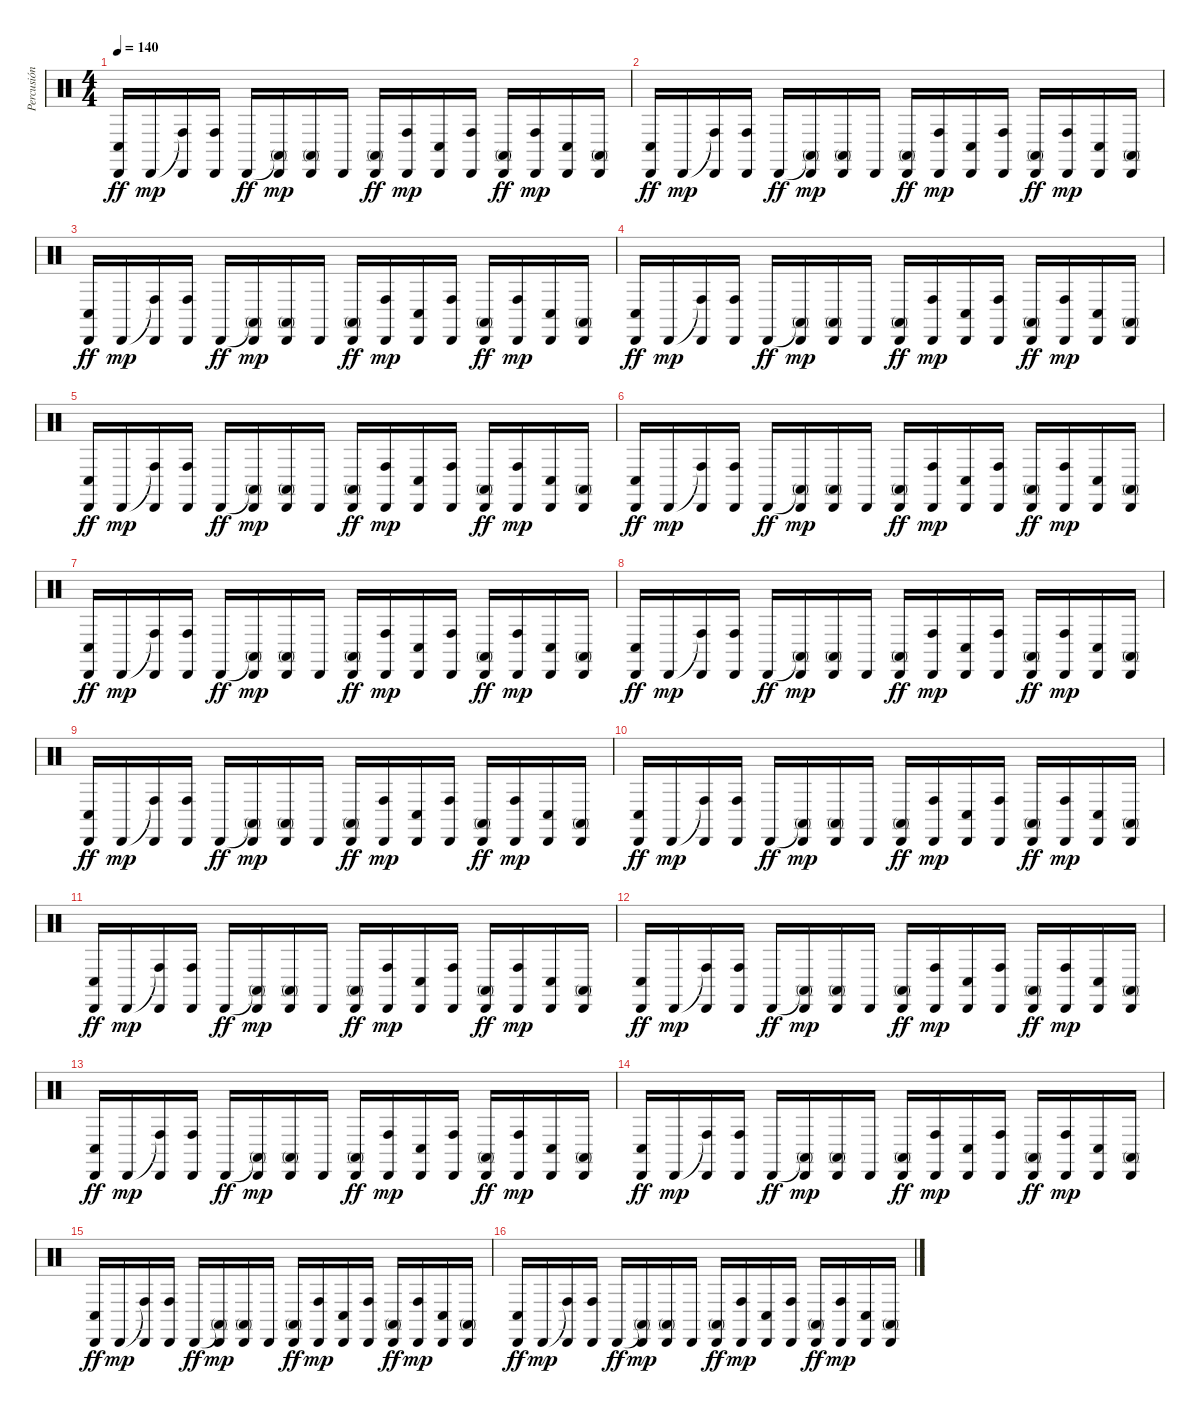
\track ("Percusión" "Percusión") {instrument percussion}
\staff {score}
\articulation defaults
\ts (4 4)
\tempo 140
\clef neutral
\ks c
("Conga low (hit)" "Cabasa (hit)").16{dy ff} "Cabasa (hit)".16{dy mp} ("Conga high (hit)"{t} "Cabasa (hit)").16 ("Conga high (hit)" "Cabasa (hit)").16 "Cabasa (hit)".16{dy ff} ("Conga high (mute)"{t} "Cabasa (hit)").16{dy mp} ("Conga high (mute)" "Cabasa (hit)").16 "Cabasa (hit)".16 ("Conga high (mute)" "Cabasa (hit)").16{dy ff} ("Conga high (hit)" "Cabasa (hit)").16{dy mp} ("Conga low (hit)" "Cabasa (hit)").16 ("Conga high (hit)" "Cabasa (hit)").16 ("Conga high (mute)" "Cabasa (hit)").16{dy ff} ("Conga high (hit)" "Cabasa (hit)").16{dy mp} ("Conga low (hit)" "Cabasa (hit)").16 ("Conga high (mute)" "Cabasa (hit)").16 |
("Conga low (hit)" "Cabasa (hit)").16{dy ff} "Cabasa (hit)".16{dy mp} ("Conga high (hit)"{t} "Cabasa (hit)").16 ("Conga high (hit)" "Cabasa (hit)").16 "Cabasa (hit)".16{dy ff} ("Conga high (mute)"{t} "Cabasa (hit)").16{dy mp} ("Conga high (mute)" "Cabasa (hit)").16 "Cabasa (hit)".16 ("Conga high (mute)" "Cabasa (hit)").16{dy ff} ("Conga high (hit)" "Cabasa (hit)").16{dy mp} ("Conga low (hit)" "Cabasa (hit)").16 ("Conga high (hit)" "Cabasa (hit)").16 ("Conga high (mute)" "Cabasa (hit)").16{dy ff} ("Conga high (hit)" "Cabasa (hit)").16{dy mp} ("Conga low (hit)" "Cabasa (hit)").16 ("Conga high (mute)" "Cabasa (hit)").16 |
("Conga low (hit)" "Cabasa (hit)").16{dy ff} "Cabasa (hit)".16{dy mp} ("Conga high (hit)"{t} "Cabasa (hit)").16 ("Conga high (hit)" "Cabasa (hit)").16 "Cabasa (hit)".16{dy ff} ("Conga high (mute)"{t} "Cabasa (hit)").16{dy mp} ("Conga high (mute)" "Cabasa (hit)").16 "Cabasa (hit)".16 ("Conga high (mute)" "Cabasa (hit)").16{dy ff} ("Conga high (hit)" "Cabasa (hit)").16{dy mp} ("Conga low (hit)" "Cabasa (hit)").16 ("Conga high (hit)" "Cabasa (hit)").16 ("Conga high (mute)" "Cabasa (hit)").16{dy ff} ("Conga high (hit)" "Cabasa (hit)").16{dy mp} ("Conga low (hit)" "Cabasa (hit)").16 ("Conga high (mute)" "Cabasa (hit)").16 |
("Conga low (hit)" "Cabasa (hit)").16{dy ff} "Cabasa (hit)".16{dy mp} ("Conga high (hit)"{t} "Cabasa (hit)").16 ("Conga high (hit)" "Cabasa (hit)").16 "Cabasa (hit)".16{dy ff} ("Conga high (mute)"{t} "Cabasa (hit)").16{dy mp} ("Conga high (mute)" "Cabasa (hit)").16 "Cabasa (hit)".16 ("Conga high (mute)" "Cabasa (hit)").16{dy ff} ("Conga high (hit)" "Cabasa (hit)").16{dy mp} ("Conga low (hit)" "Cabasa (hit)").16 ("Conga high (hit)" "Cabasa (hit)").16 ("Conga high (mute)" "Cabasa (hit)").16{dy ff} ("Conga high (hit)" "Cabasa (hit)").16{dy mp} ("Conga low (hit)" "Cabasa (hit)").16 ("Conga high (mute)" "Cabasa (hit)").16 |
("Conga low (hit)" "Cabasa (hit)").16{dy ff} "Cabasa (hit)".16{dy mp} ("Conga high (hit)"{t} "Cabasa (hit)").16 ("Conga high (hit)" "Cabasa (hit)").16 "Cabasa (hit)".16{dy ff} ("Conga high (mute)"{t} "Cabasa (hit)").16{dy mp} ("Conga high (mute)" "Cabasa (hit)").16 "Cabasa (hit)".16 ("Conga high (mute)" "Cabasa (hit)").16{dy ff} ("Conga high (hit)" "Cabasa (hit)").16{dy mp} ("Conga low (hit)" "Cabasa (hit)").16 ("Conga high (hit)" "Cabasa (hit)").16 ("Conga high (mute)" "Cabasa (hit)").16{dy ff} ("Conga high (hit)" "Cabasa (hit)").16{dy mp} ("Conga low (hit)" "Cabasa (hit)").16 ("Conga high (mute)" "Cabasa (hit)").16 |
("Conga low (hit)" "Cabasa (hit)").16{dy ff} "Cabasa (hit)".16{dy mp} ("Conga high (hit)"{t} "Cabasa (hit)").16 ("Conga high (hit)" "Cabasa (hit)").16 "Cabasa (hit)".16{dy ff} ("Conga high (mute)"{t} "Cabasa (hit)").16{dy mp} ("Conga high (mute)" "Cabasa (hit)").16 "Cabasa (hit)".16 ("Conga high (mute)" "Cabasa (hit)").16{dy ff} ("Conga high (hit)" "Cabasa (hit)").16{dy mp} ("Conga low (hit)" "Cabasa (hit)").16 ("Conga high (hit)" "Cabasa (hit)").16 ("Conga high (mute)" "Cabasa (hit)").16{dy ff} ("Conga high (hit)" "Cabasa (hit)").16{dy mp} ("Conga low (hit)" "Cabasa (hit)").16 ("Conga high (mute)" "Cabasa (hit)").16 |
("Conga low (hit)" "Cabasa (hit)").16{dy ff} "Cabasa (hit)".16{dy mp} ("Conga high (hit)"{t} "Cabasa (hit)").16 ("Conga high (hit)" "Cabasa (hit)").16 "Cabasa (hit)".16{dy ff} ("Conga high (mute)"{t} "Cabasa (hit)").16{dy mp} ("Conga high (mute)" "Cabasa (hit)").16 "Cabasa (hit)".16 ("Conga high (mute)" "Cabasa (hit)").16{dy ff} ("Conga high (hit)" "Cabasa (hit)").16{dy mp} ("Conga low (hit)" "Cabasa (hit)").16 ("Conga high (hit)" "Cabasa (hit)").16 ("Conga high (mute)" "Cabasa (hit)").16{dy ff} ("Conga high (hit)" "Cabasa (hit)").16{dy mp} ("Conga low (hit)" "Cabasa (hit)").16 ("Conga high (mute)" "Cabasa (hit)").16 |
("Conga low (hit)" "Cabasa (hit)").16{dy ff} "Cabasa (hit)".16{dy mp} ("Conga high (hit)"{t} "Cabasa (hit)").16 ("Conga high (hit)" "Cabasa (hit)").16 "Cabasa (hit)".16{dy ff} ("Conga high (mute)"{t} "Cabasa (hit)").16{dy mp} ("Conga high (mute)" "Cabasa (hit)").16 "Cabasa (hit)".16 ("Conga high (mute)" "Cabasa (hit)").16{dy ff} ("Conga high (hit)" "Cabasa (hit)").16{dy mp} ("Conga low (hit)" "Cabasa (hit)").16 ("Conga high (hit)" "Cabasa (hit)").16 ("Conga high (mute)" "Cabasa (hit)").16{dy ff} ("Conga high (hit)" "Cabasa (hit)").16{dy mp} ("Conga low (hit)" "Cabasa (hit)").16 ("Conga high (mute)" "Cabasa (hit)").16 |
("Conga low (hit)" "Cabasa (hit)").16{dy ff} "Cabasa (hit)".16{dy mp} ("Conga high (hit)"{t} "Cabasa (hit)").16 ("Conga high (hit)" "Cabasa (hit)").16 "Cabasa (hit)".16{dy ff} ("Conga high (mute)"{t} "Cabasa (hit)").16{dy mp} ("Conga high (mute)" "Cabasa (hit)").16 "Cabasa (hit)".16 ("Conga high (mute)" "Cabasa (hit)").16{dy ff} ("Conga high (hit)" "Cabasa (hit)").16{dy mp} ("Conga low (hit)" "Cabasa (hit)").16 ("Conga high (hit)" "Cabasa (hit)").16 ("Conga high (mute)" "Cabasa (hit)").16{dy ff} ("Conga high (hit)" "Cabasa (hit)").16{dy mp} ("Conga low (hit)" "Cabasa (hit)").16 ("Conga high (mute)" "Cabasa (hit)").16 |
("Conga low (hit)" "Cabasa (hit)").16{dy ff} "Cabasa (hit)".16{dy mp} ("Conga high (hit)"{t} "Cabasa (hit)").16 ("Conga high (hit)" "Cabasa (hit)").16 "Cabasa (hit)".16{dy ff} ("Conga high (mute)"{t} "Cabasa (hit)").16{dy mp} ("Conga high (mute)" "Cabasa (hit)").16 "Cabasa (hit)".16 ("Conga high (mute)" "Cabasa (hit)").16{dy ff} ("Conga high (hit)" "Cabasa (hit)").16{dy mp} ("Conga low (hit)" "Cabasa (hit)").16 ("Conga high (hit)" "Cabasa (hit)").16 ("Conga high (mute)" "Cabasa (hit)").16{dy ff} ("Conga high (hit)" "Cabasa (hit)").16{dy mp} ("Conga low (hit)" "Cabasa (hit)").16 ("Conga high (mute)" "Cabasa (hit)").16 |
("Conga low (hit)" "Cabasa (hit)").16{dy ff} "Cabasa (hit)".16{dy mp} ("Conga high (hit)"{t} "Cabasa (hit)").16 ("Conga high (hit)" "Cabasa (hit)").16 "Cabasa (hit)".16{dy ff} ("Conga high (mute)"{t} "Cabasa (hit)").16{dy mp} ("Conga high (mute)" "Cabasa (hit)").16 "Cabasa (hit)".16 ("Conga high (mute)" "Cabasa (hit)").16{dy ff} ("Conga high (hit)" "Cabasa (hit)").16{dy mp} ("Conga low (hit)" "Cabasa (hit)").16 ("Conga high (hit)" "Cabasa (hit)").16 ("Conga high (mute)" "Cabasa (hit)").16{dy ff} ("Conga high (hit)" "Cabasa (hit)").16{dy mp} ("Conga low (hit)" "Cabasa (hit)").16 ("Conga high (mute)" "Cabasa (hit)").16 |
("Conga low (hit)" "Cabasa (hit)").16{dy ff} "Cabasa (hit)".16{dy mp} ("Conga high (hit)"{t} "Cabasa (hit)").16 ("Conga high (hit)" "Cabasa (hit)").16 "Cabasa (hit)".16{dy ff} ("Conga high (mute)"{t} "Cabasa (hit)").16{dy mp} ("Conga high (mute)" "Cabasa (hit)").16 "Cabasa (hit)".16 ("Conga high (mute)" "Cabasa (hit)").16{dy ff} ("Conga high (hit)" "Cabasa (hit)").16{dy mp} ("Conga low (hit)" "Cabasa (hit)").16 ("Conga high (hit)" "Cabasa (hit)").16 ("Conga high (mute)" "Cabasa (hit)").16{dy ff} ("Conga high (hit)" "Cabasa (hit)").16{dy mp} ("Conga low (hit)" "Cabasa (hit)").16 ("Conga high (mute)" "Cabasa (hit)").16 |
("Conga low (hit)" "Cabasa (hit)").16{dy ff} "Cabasa (hit)".16{dy mp} ("Conga high (hit)"{t} "Cabasa (hit)").16 ("Conga high (hit)" "Cabasa (hit)").16 "Cabasa (hit)".16{dy ff} ("Conga high (mute)"{t} "Cabasa (hit)").16{dy mp} ("Conga high (mute)" "Cabasa (hit)").16 "Cabasa (hit)".16 ("Conga high (mute)" "Cabasa (hit)").16{dy ff} ("Conga high (hit)" "Cabasa (hit)").16{dy mp} ("Conga low (hit)" "Cabasa (hit)").16 ("Conga high (hit)" "Cabasa (hit)").16 ("Conga high (mute)" "Cabasa (hit)").16{dy ff} ("Conga high (hit)" "Cabasa (hit)").16{dy mp} ("Conga low (hit)" "Cabasa (hit)").16 ("Conga high (mute)" "Cabasa (hit)").16 |
("Conga low (hit)" "Cabasa (hit)").16{dy ff} "Cabasa (hit)".16{dy mp} ("Conga high (hit)"{t} "Cabasa (hit)").16 ("Conga high (hit)" "Cabasa (hit)").16 "Cabasa (hit)".16{dy ff} ("Conga high (mute)"{t} "Cabasa (hit)").16{dy mp} ("Conga high (mute)" "Cabasa (hit)").16 "Cabasa (hit)".16 ("Conga high (mute)" "Cabasa (hit)").16{dy ff} ("Conga high (hit)" "Cabasa (hit)").16{dy mp} ("Conga low (hit)" "Cabasa (hit)").16 ("Conga high (hit)" "Cabasa (hit)").16 ("Conga high (mute)" "Cabasa (hit)").16{dy ff} ("Conga high (hit)" "Cabasa (hit)").16{dy mp} ("Conga low (hit)" "Cabasa (hit)").16 ("Conga high (mute)" "Cabasa (hit)").16 |
("Conga low (hit)" "Cabasa (hit)").16{dy ff} "Cabasa (hit)".16{dy mp} ("Conga high (hit)"{t} "Cabasa (hit)").16 ("Conga high (hit)" "Cabasa (hit)").16 "Cabasa (hit)".16{dy ff} ("Conga high (mute)"{t} "Cabasa (hit)").16{dy mp} ("Conga high (mute)" "Cabasa (hit)").16 "Cabasa (hit)".16 ("Conga high (mute)" "Cabasa (hit)").16{dy ff} ("Conga high (hit)" "Cabasa (hit)").16{dy mp} ("Conga low (hit)" "Cabasa (hit)").16 ("Conga high (hit)" "Cabasa (hit)").16 ("Conga high (mute)" "Cabasa (hit)").16{dy ff} ("Conga high (hit)" "Cabasa (hit)").16{dy mp} ("Conga low (hit)" "Cabasa (hit)").16 ("Conga high (mute)" "Cabasa (hit)").16 |
("Conga low (hit)" "Cabasa (hit)").16{dy ff} "Cabasa (hit)".16{dy mp} ("Conga high (hit)"{t} "Cabasa (hit)").16 ("Conga high (hit)" "Cabasa (hit)").16 "Cabasa (hit)".16{dy ff} ("Conga high (mute)"{t} "Cabasa (hit)").16{dy mp} ("Conga high (mute)" "Cabasa (hit)").16 "Cabasa (hit)".16 ("Conga high (mute)" "Cabasa (hit)").16{dy ff} ("Conga high (hit)" "Cabasa (hit)").16{dy mp} ("Conga low (hit)" "Cabasa (hit)").16 ("Conga high (hit)" "Cabasa (hit)").16 ("Conga high (mute)" "Cabasa (hit)").16{dy ff} ("Conga high (hit)" "Cabasa (hit)").16{dy mp} ("Conga low (hit)" "Cabasa (hit)").16 ("Conga high (mute)" "Cabasa (hit)").16
